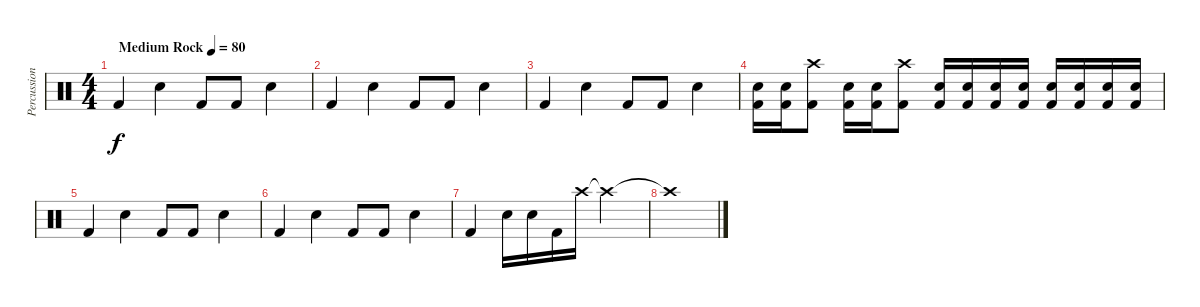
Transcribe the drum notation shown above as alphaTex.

\track ("Percussion" "Percussion") {instrument percussion}
\staff {score}
\articulation defaults
\ts (4 4)
\tempo (80 "Medium Rock")
\clef neutral
\ks c "Kick (hit) 2".4{dy f} "Electric Snare (hit)".4 "Kick (hit) 2".8 "Kick (hit) 2".8 "Electric Snare (hit)".4
|
"Kick (hit) 2".4 "Electric Snare (hit)".4 "Kick (hit) 2".8 "Kick (hit) 2".8 "Electric Snare (hit)".4 |
"Kick (hit) 2".4 "Electric Snare (hit)".4 "Kick (hit) 2".8 "Kick (hit) 2".8 "Electric Snare (hit)".4 |
("Electric Snare (hit)" "Kick (hit) 2").16 ("Electric Snare (hit)" "Kick (hit) 2").16 ("Crash high (hit)" "Kick (hit) 2").8 ("Electric Snare (hit)" "Kick (hit) 2").16 ("Electric Snare (hit)" "Kick (hit) 2").16 ("Crash high (hit)" "Kick (hit) 2").8 ("Electric Snare (hit)" "Kick (hit) 2").16 ("Electric Snare (hit)" "Kick (hit) 2").16 ("Electric Snare (hit)" "Kick (hit) 2").16 ("Electric Snare (hit)" "Kick (hit) 2").16 ("Electric Snare (hit)" "Kick (hit) 2").16 ("Electric Snare (hit)" "Kick (hit) 2").16 ("Electric Snare (hit)" "Kick (hit) 2").16 ("Electric Snare (hit)" "Kick (hit) 2").16 |
"Kick (hit) 2".4 "Electric Snare (hit)".4 "Kick (hit) 2".8 "Kick (hit) 2".8 "Electric Snare (hit)".4 |
"Kick (hit) 2".4 "Electric Snare (hit)".4 "Kick (hit) 2".8 "Kick (hit) 2".8 "Electric Snare (hit)".4 |
"Kick (hit) 2".4 "Electric Snare (hit)".16 "Electric Snare (hit)".16 "Kick (hit) 2".16 "Crash high (hit)".16 "Crash high (hit)"{t}.2 |
"Crash high (hit)"{t}.1
